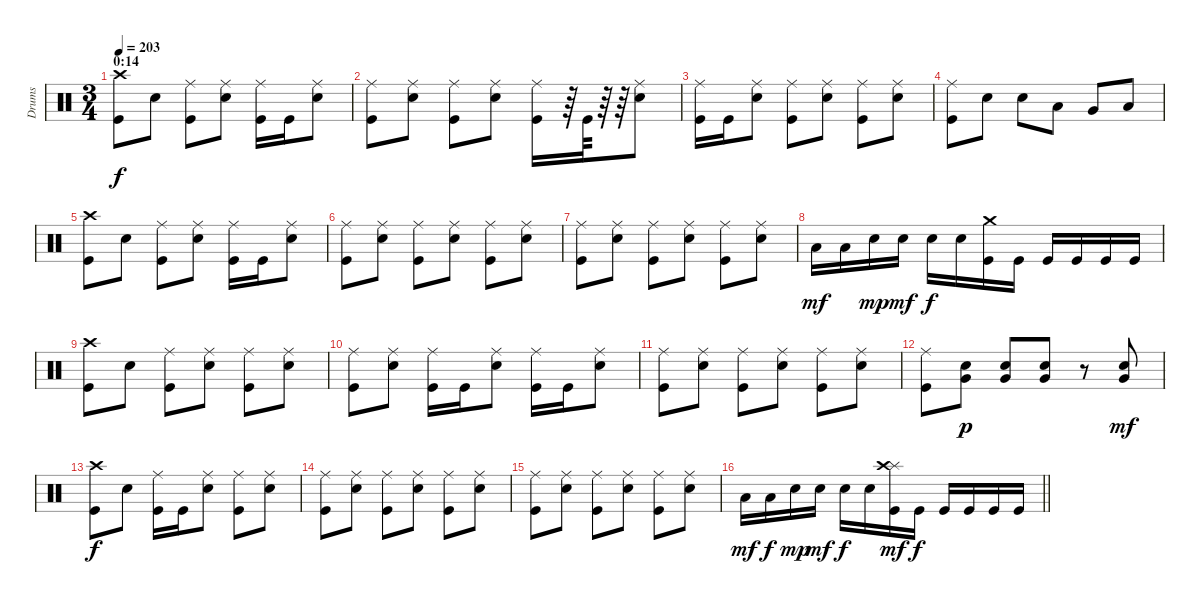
\track ("Drums" "Drums") {instrument percussion}
\staff {score}
\articulation defaults
\ts (3 4)
\section ("" "0:14")
\tempo 203
\clef neutral
\ks c
("Crash high (hit)" "Kick (hit)").8{dy f} "Electric Snare (hit)".8 ("Ride (middle)" "Kick (hit)").8 ("Ride (middle)" "Electric Snare (hit)").8 ("Ride (middle)" "Kick (hit)").16 "Kick (hit)".16 ("Ride (middle)" "Electric Snare (hit)").8 |
("Ride (middle)" "Kick (hit)").8 ("Ride (middle)" "Electric Snare (hit)").8 ("Ride (middle)" "Kick (hit)").8 ("Ride (middle)" "Electric Snare (hit)").8 ("Ride (middle)" "Kick (hit)").16 r.64 "Kick (hit)".64 r.64 r.64 ("Ride (middle)" "Electric Snare (hit)").8 |
("Ride (middle)" "Kick (hit)").16 "Kick (hit)".16 ("Ride (middle)" "Electric Snare (hit)").8 ("Ride (middle)" "Kick (hit)").8 ("Ride (middle)" "Electric Snare (hit)").8 ("Ride (middle)" "Kick (hit)").8 ("Ride (middle)" "Electric Snare (hit)").8 |
("Ride (middle)" "Kick (hit)").8 "Electric Snare (hit)".8 "Electric Snare (hit)".8 "Low Tom (hit)".8 "Very Low Tom (hit)".8 "Low Tom (hit)".8 |
("Crash high (hit)" "Kick (hit)").8 "Electric Snare (hit)".8 ("Ride (middle)" "Kick (hit)").8 ("Ride (middle)" "Electric Snare (hit)").8 ("Ride (middle)" "Kick (hit)").16 "Kick (hit)".16 ("Ride (middle)" "Electric Snare (hit)").8 |
("Ride (middle)" "Kick (hit)").8 ("Ride (middle)" "Electric Snare (hit)").8 ("Ride (middle)" "Kick (hit)").8 ("Ride (middle)" "Electric Snare (hit)").8 ("Ride (middle)" "Kick (hit)").8 ("Ride (middle)" "Electric Snare (hit)").8 |
("Ride (middle)" "Kick (hit)").8 ("Ride (middle)" "Electric Snare (hit)").8 ("Ride (middle)" "Kick (hit)").8 ("Ride (middle)" "Electric Snare (hit)").8 ("Ride (middle)" "Kick (hit)").8 ("Ride (middle)" "Electric Snare (hit)").8 |
"Low Tom (hit)".16{dy mf} "Low Tom (hit)".16 "Electric Snare (hit)".16{dy mp} "Electric Snare (hit)".16{dy mf} "Electric Snare (hit)".16{dy f} "Electric Snare (hit)".16 ("Crash medium (hit)" "Kick (hit)").16 "Kick (hit)".16 "Kick (hit)".16 "Kick (hit)".16 "Kick (hit)".16 "Kick (hit)".16 |
("Crash high (hit)" "Kick (hit)").8 "Electric Snare (hit)".8 ("Ride (middle)" "Kick (hit)").8 ("Ride (middle)" "Electric Snare (hit)").8 ("Ride (middle)" "Kick (hit)").8 ("Ride (middle)" "Electric Snare (hit)").8 |
("Ride (middle)" "Kick (hit)").8 ("Ride (middle)" "Electric Snare (hit)").8 ("Ride (middle)" "Kick (hit)").16 "Kick (hit)".16 ("Ride (middle)" "Electric Snare (hit)").8 ("Ride (middle)" "Kick (hit)").16 "Kick (hit)".16 ("Ride (middle)" "Electric Snare (hit)").8 |
("Ride (middle)" "Kick (hit)").8 ("Ride (middle)" "Electric Snare (hit)").8 ("Ride (middle)" "Kick (hit)").8 ("Ride (middle)" "Electric Snare (hit)").8 ("Ride (middle)" "Kick (hit)").8 ("Ride (middle)" "Electric Snare (hit)").8 |
("Ride (middle)" "Kick (hit)").8 ("Very Low Tom (hit)" "Electric Snare (hit)").8{dy p} ("Very Low Tom (hit)" "Electric Snare (hit)").8 ("Very Low Tom (hit)" "Electric Snare (hit)").8 r.8 ("Very Low Tom (hit)" "Electric Snare (hit)").8{dy mf} |
("Crash high (hit)" "Kick (hit)").8{dy f} "Electric Snare (hit)".8 ("Ride (middle)" "Kick (hit)").16 "Kick (hit)".16 ("Ride (middle)" "Electric Snare (hit)").8 ("Ride (middle)" "Kick (hit)").8 ("Ride (middle)" "Electric Snare (hit)").8 |
("Ride (middle)" "Kick (hit)").8 ("Ride (middle)" "Electric Snare (hit)").8 ("Ride (middle)" "Kick (hit)").8 ("Ride (middle)" "Electric Snare (hit)").8 ("Ride (middle)" "Kick (hit)").8 ("Ride (middle)" "Electric Snare (hit)").8 |
("Ride (middle)" "Kick (hit)").8 ("Ride (middle)" "Electric Snare (hit)").8 ("Ride (middle)" "Kick (hit)").8 ("Ride (middle)" "Electric Snare (hit)").8 ("Ride (middle)" "Kick (hit)").8 ("Ride (middle)" "Electric Snare (hit)").8 |
\barLineRight lightlight "Low Tom (hit)".16{dy mf} "Low Tom (hit)".16{dy f} "Electric Snare (hit)".16{dy mp} "Electric Snare (hit)".16{dy mf} "Electric Snare (hit)".16{dy f} "Electric Snare (hit)".16
("Splash (hit)" "Crash high (hit)" "Kick (hit)").16{dy mf} "Kick (hit)".16{dy f} "Kick (hit)".16 "Kick (hit)".16 "Kick (hit)".16 "Kick (hit)".16
